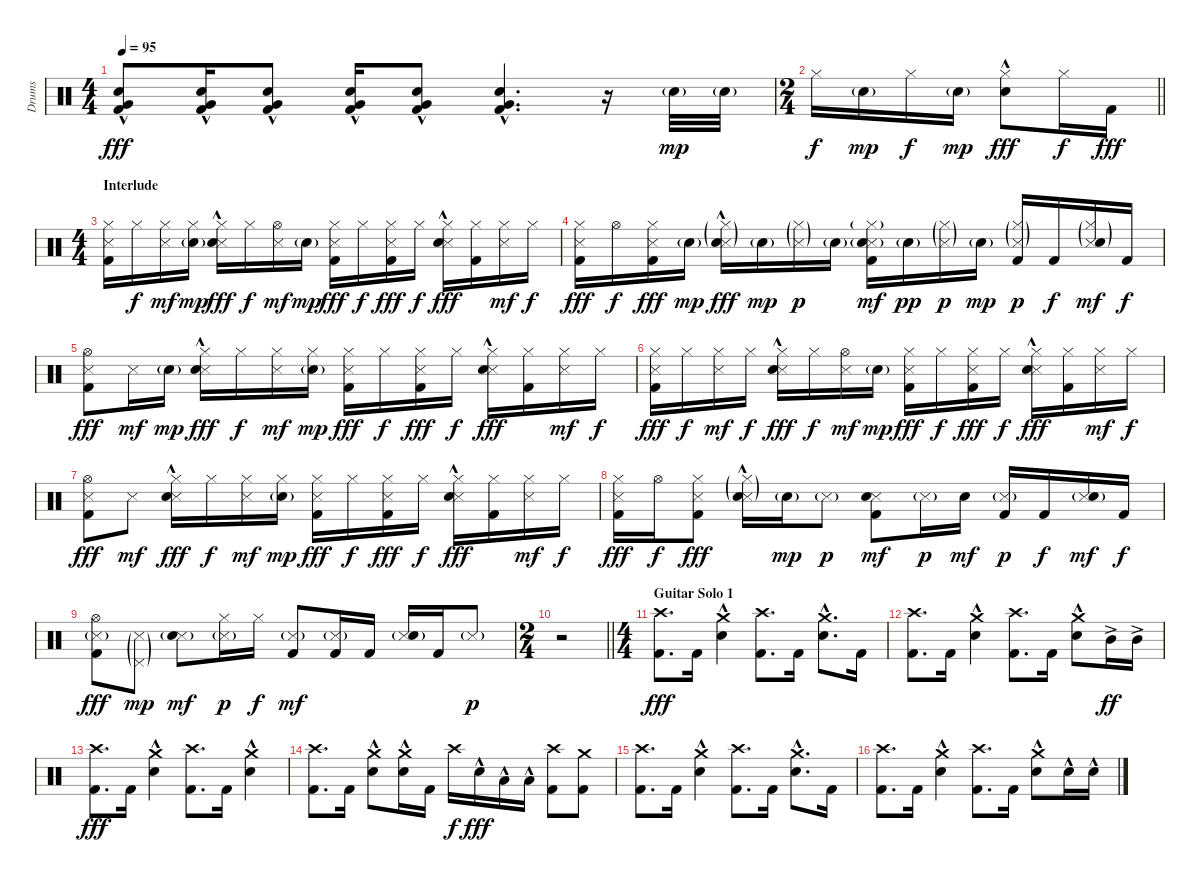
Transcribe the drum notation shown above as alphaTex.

\track ("Drums" "Drums") {instrument percussion}
\staff {score}
\articulation defaults
\ts (4 4)
\tempo 95
\clef neutral
\ks c
("Electric Snare (hit)"{hac} "Very Low Tom (hit)"{hac} "Kick (hit) 2").8{dy fff} ("Electric Snare (hit)"{hac} "Very Low Tom (hit)"{hac} "Kick (hit) 2").16 ("Electric Snare (hit)"{hac} "Very Low Tom (hit)"{hac} "Kick (hit) 2").8 ("Electric Snare (hit)"{hac} "Very Low Tom (hit)"{hac} "Kick (hit) 2").16 ("Electric Snare (hit)"{hac} "Very Low Tom (hit)"{hac} "Kick (hit) 2").8 ("Electric Snare (hit)"{hac} "Very Low Tom (hit)"{hac} "Kick (hit) 2").4{d} r.16 "Electric Snare (hit)"{g}.32{dy mp volume 7} "Electric Snare (hit)"{g}.32 |
\ts (2 4)
\barLineRight lightlight "Hi-Hat (closed)".16{dy f} "Electric Snare (hit)"{g}.16{dy mp} "Hi-Hat (closed)".16{dy f} "Electric Snare (hit)"{g}.16{dy mp}
("Hi-Hat (closed)" "Electric Snare (hit)"{hac}).8{dy fff} "Hi-Hat (closed)".16{dy f} "Kick (hit) 2".16{dy fff volume 10} |
\ts (4 4)
\section ("" "Interlude")
("Metronome (hit)" "Hi-Hat (closed)" "Kick (hit) 2").16 "Hi-Hat (closed)".16{dy f} ("Metronome (hit)" "Hi-Hat (closed)").16{dy mf} ("Hi-Hat (closed)" "Electric Snare (hit)"{g}).16{dy mp} ("Metronome (hit)" "Hi-Hat (closed)" "Electric Snare (hit)"{hac}).16{dy fff} "Hi-Hat (closed)".16{dy f} ("Metronome (hit)" "Hi-Hat (open)").16{dy mf} "Electric Snare (hit)"{g}.16{dy mp} ("Metronome (hit)" "Hi-Hat (closed)" "Kick (hit) 2").16{dy fff} "Hi-Hat (closed)".16{dy f} ("Metronome (hit)" "Hi-Hat (closed)" "Kick (hit) 2").16{dy fff} "Hi-Hat (closed)".16{dy f} ("Metronome (hit)" "Hi-Hat (closed)" "Electric Snare (hit)"{hac}).16{dy fff} ("Hi-Hat (closed)" "Kick (hit) 2").16 ("Metronome (hit)" "Hi-Hat (closed)").16{dy mf} "Hi-Hat (closed)".16{dy f} |
("Metronome (hit)" "Hi-Hat (closed)" "Kick (hit) 2").16{dy fff} "Hi-Hat (open)".16{dy f} ("Metronome (hit)" "Hi-Hat (closed)" "Kick (hit) 2").16{dy fff} "Electric Snare (hit)"{g}.16{dy mp} ("Metronome (hit)"{g} "Hi-Hat (closed)"{g} "Electric Snare (hit)"{hac}).16{dy fff} "Electric Snare (hit)"{g}.16{dy mp} ("Metronome (hit)"{g} "Hi-Hat (closed)"{g}).16{dy p} "Electric Snare (hit)"{g}.16 ("Metronome (hit)" "Hi-Hat (closed)"{g} "Electric Snare (hit)"{g} "Kick (hit) 2").16{dy mf} "Electric Snare (hit)"{g}.16{dy pp} ("Metronome (hit)"{g} "Hi-Hat (closed)"{g}).16{dy p} "Electric Snare (hit)"{g}.16{dy mp} ("Metronome (hit)"{g} "Hi-Hat (closed)"{g} "Kick (hit) 2").16{dy p} "Kick (hit) 2".16{dy f} ("Metronome (hit)"{g} "Hi-Hat (closed)"{g} "Electric Snare (hit)"{g}).16{dy mf} "Kick (hit) 2".16{dy f} |
("Metronome (hit)" "Hi-Hat (open)" "Kick (hit) 2").8{dy fff} "Metronome (hit)".16{dy mf} "Electric Snare (hit)"{g}.16{dy mp} ("Metronome (hit)" "Hi-Hat (closed)" "Electric Snare (hit)"{hac}).16{dy fff} "Hi-Hat (closed)".16{dy f} ("Metronome (hit)" "Hi-Hat (closed)").16{dy mf} ("Hi-Hat (closed)" "Electric Snare (hit)"{g}).16{dy mp} ("Metronome (hit)" "Hi-Hat (closed)" "Kick (hit) 2").16{dy fff} "Hi-Hat (closed)".16{dy f} ("Metronome (hit)" "Hi-Hat (closed)" "Kick (hit) 2").16{dy fff} "Hi-Hat (closed)".16{dy f} ("Metronome (hit)" "Hi-Hat (closed)" "Electric Snare (hit)"{hac}).16{dy fff} ("Hi-Hat (closed)" "Kick (hit) 2").16 ("Metronome (hit)" "Hi-Hat (closed)").16{dy mf} "Hi-Hat (closed)".16{dy f} |
("Metronome (hit)" "Hi-Hat (closed)" "Kick (hit) 2").16{dy fff} "Hi-Hat (closed)".16{dy f} ("Metronome (hit)" "Hi-Hat (closed)").16{dy mf} "Hi-Hat (closed)".16{dy f} ("Metronome (hit)" "Hi-Hat (closed)" "Electric Snare (hit)"{hac}).16{dy fff} "Hi-Hat (closed)".16{dy f} ("Metronome (hit)" "Hi-Hat (open)").16{dy mf} "Electric Snare (hit)"{g}.16{dy mp} ("Metronome (hit)" "Hi-Hat (closed)" "Kick (hit) 2").16{dy fff} "Hi-Hat (closed)".16{dy f} ("Metronome (hit)" "Hi-Hat (closed)" "Kick (hit) 2").16{dy fff} "Hi-Hat (closed)".16{dy f} ("Metronome (hit)" "Hi-Hat (closed)" "Electric Snare (hit)"{hac}).16{dy fff} ("Hi-Hat (closed)" "Kick (hit) 2").16 ("Metronome (hit)" "Hi-Hat (closed)").16{dy mf} "Hi-Hat (closed)".16{dy f} |
("Metronome (hit)" "Hi-Hat (open)" "Kick (hit) 2").8{dy fff} "Metronome (hit)".8{dy mf} ("Metronome (hit)" "Hi-Hat (closed)" "Electric Snare (hit)"{hac}).16{dy fff} "Hi-Hat (closed)".16{dy f} ("Metronome (hit)" "Hi-Hat (closed)").16{dy mf} ("Hi-Hat (closed)" "Electric Snare (hit)"{g}).16{dy mp} ("Metronome (hit)" "Hi-Hat (closed)" "Kick (hit) 2").16{dy fff} "Hi-Hat (closed)".16{dy f} ("Metronome (hit)" "Hi-Hat (closed)" "Kick (hit) 2").16{dy fff} "Hi-Hat (closed)".16{dy f} ("Metronome (hit)" "Hi-Hat (closed)" "Electric Snare (hit)"{hac}).16{dy fff} ("Hi-Hat (closed)" "Kick (hit) 2").16 ("Metronome (hit)" "Hi-Hat (closed)").16{dy mf} "Hi-Hat (closed)".16{dy f} |
("Metronome (hit)" "Hi-Hat (closed)" "Kick (hit) 2").16{dy fff} "Hi-Hat (open)".16{dy f} ("Metronome (hit)" "Hi-Hat (closed)" "Kick (hit) 2").8{dy fff} ("Metronome (hit)"{g} "Hi-Hat (closed)"{g} "Electric Snare (hit)"{hac}).16 "Electric Snare (hit)"{g}.16{dy mp} "Metronome (hit)"{g}.8{dy p} ("Metronome (hit)" "Electric Snare (hit)" "Kick (hit) 2").8{dy mf} "Metronome (hit)"{g}.16{dy p} "Electric Snare (hit)".16{dy mf} ("Metronome (hit)"{g} "Kick (hit) 2").16{dy p} "Kick (hit) 2".16{dy f} ("Metronome (hit)"{g} "Electric Snare (hit)").16{dy mf} "Kick (hit) 2".16{dy f} |
("Metronome (hit)"{g} "Hi-Hat (open)" "Kick (hit) 2").8{dy fff} ("Metronome (hit)"{g} "Pedal Hi-Hat (hit)"{g}).8{dy mp} ("Metronome (hit)"{g} "Electric Snare (hit)"{g}).8{dy mf} ("Metronome (hit)"{g} "Hi-Hat (closed)").16{dy p} "Hi-Hat (closed)".16{dy f} ("Metronome (hit)"{g} "Kick (hit) 2").8{dy mf} ("Metronome (hit)"{g} "Kick (hit) 2").16 "Kick (hit) 2".16 ("Metronome (hit)"{g} "Electric Snare (hit)"{g}).16 "Kick (hit) 2".16 "Metronome (hit)"{g}.8{dy p} |
\ts (2 4)
\barLineRight lightlight
r.2 |
\ts (4 4)
\section ("" "Guitar Solo 1")
("Crash high (hit)" "Kick (hit) 2").8{d dy fff} "Kick (hit) 2".16 ("Crash medium (hit)" "Electric Snare (hit)"{hac}).4 ("Crash high (hit)" "Kick (hit) 2").8{d} "Kick (hit) 2".16 ("Crash medium (hit)" "Electric Snare (hit)"{hac}).8{d} "Kick (hit) 2".16 |
("Crash high (hit)" "Kick (hit) 2").8{d} "Kick (hit) 2".16 ("Crash medium (hit)" "Electric Snare (hit)"{hac}).4 ("Crash high (hit)" "Kick (hit) 2").8{d} "Kick (hit) 2".16 ("Crash medium (hit)" "Electric Snare (hit)"{hac}).8 "Mid Tom (hit)"{ac}.16{dy ff} "Mid Tom (hit)"{ac}.16 |
("Crash high (hit)" "Kick (hit) 2").8{d dy fff} "Kick (hit) 2".16 ("Crash medium (hit)" "Electric Snare (hit)"{hac}).4 ("Crash high (hit)" "Kick (hit) 2").8{d} "Kick (hit) 2".16 ("Crash medium (hit)" "Electric Snare (hit)"{hac}).4 |
("Crash high (hit)" "Kick (hit) 2").8{d} "Kick (hit) 2".16 ("Crash medium (hit)" "Electric Snare (hit)"{hac}).8 ("Crash medium (hit)" "Electric Snare (hit)"{hac}).16 "Kick (hit) 2".16 "Crash high (hit)".16{dy f} "Electric Snare (hit)"{hac}.16{dy fff} "Low Tom (hit)"{hac}.16 "Low Tom (hit)"{hac}.16 ("Crash high (hit)" "Kick (hit) 2").8 ("Crash medium (hit)" "Kick (hit) 2").8 |
("Crash high (hit)" "Kick (hit) 2").8{d} "Kick (hit) 2".16 ("Crash medium (hit)" "Electric Snare (hit)"{hac}).4 ("Crash high (hit)" "Kick (hit) 2").8{d} "Kick (hit) 2".16 ("Crash medium (hit)" "Electric Snare (hit)"{hac}).8{d} "Kick (hit) 2".16 |
("Crash high (hit)" "Kick (hit) 2").8{d} "Kick (hit) 2".16 ("Crash medium (hit)" "Electric Snare (hit)"{hac}).4 ("Crash high (hit)" "Kick (hit) 2").8{d} "Kick (hit) 2".16 ("Crash medium (hit)" "Electric Snare (hit)"{hac}).8 "Electric Snare (hit)"{hac}.16 "Electric Snare (hit)"{hac}.16
